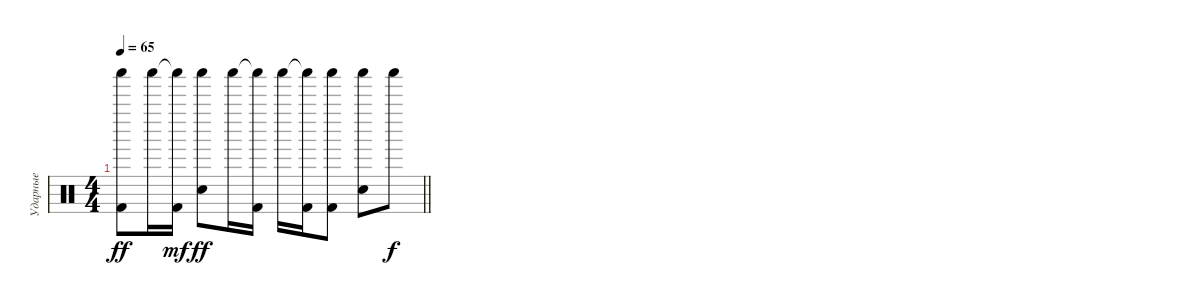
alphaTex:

\track ("Ударные" "Ударные") {instrument percussion}
\staff {score}
\articulation defaults
\ts (4 4)
\tempo 65
\clef neutral
\barLineRight lightlight
\ks c
("Shaker (hit)" "Kick (hit) 2").8{dy ff} "Shaker (hit)".16 ("Shaker (hit)"{t} "Kick (hit) 2").16{dy mf} ("Shaker (hit)" "Snare (hit) 2").8{dy ff} "Shaker (hit)".16 ("Shaker (hit)"{t} "Kick (hit) 2").16 "Shaker (hit)".16 ("Shaker (hit)"{t} "Kick (hit) 2").16 ("Shaker (hit)" "Kick (hit) 2").8 ("Shaker (hit)" "Snare (hit) 2").8 "Shaker (hit)".8{dy f}
